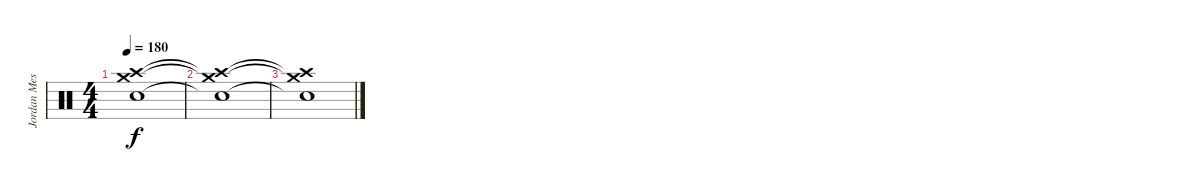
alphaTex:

\track ("Jordan Messer " "Jordan Mes") {instrument percussion}
\staff {score}
\articulation defaults
\ts (4 4)
\tempo 180
\clef neutral
\ks c
("Crash medium (hit)"{t} "Crash high (hit)"{t} "Snare (hit)"{t}).1{dy f} |
("Crash medium (hit)"{t} "Crash high (hit)"{t} "Snare (hit)"{t}).1 |
("Crash medium (hit)"{t} "Crash high (hit)"{t} "Snare (hit)"{t}).1
